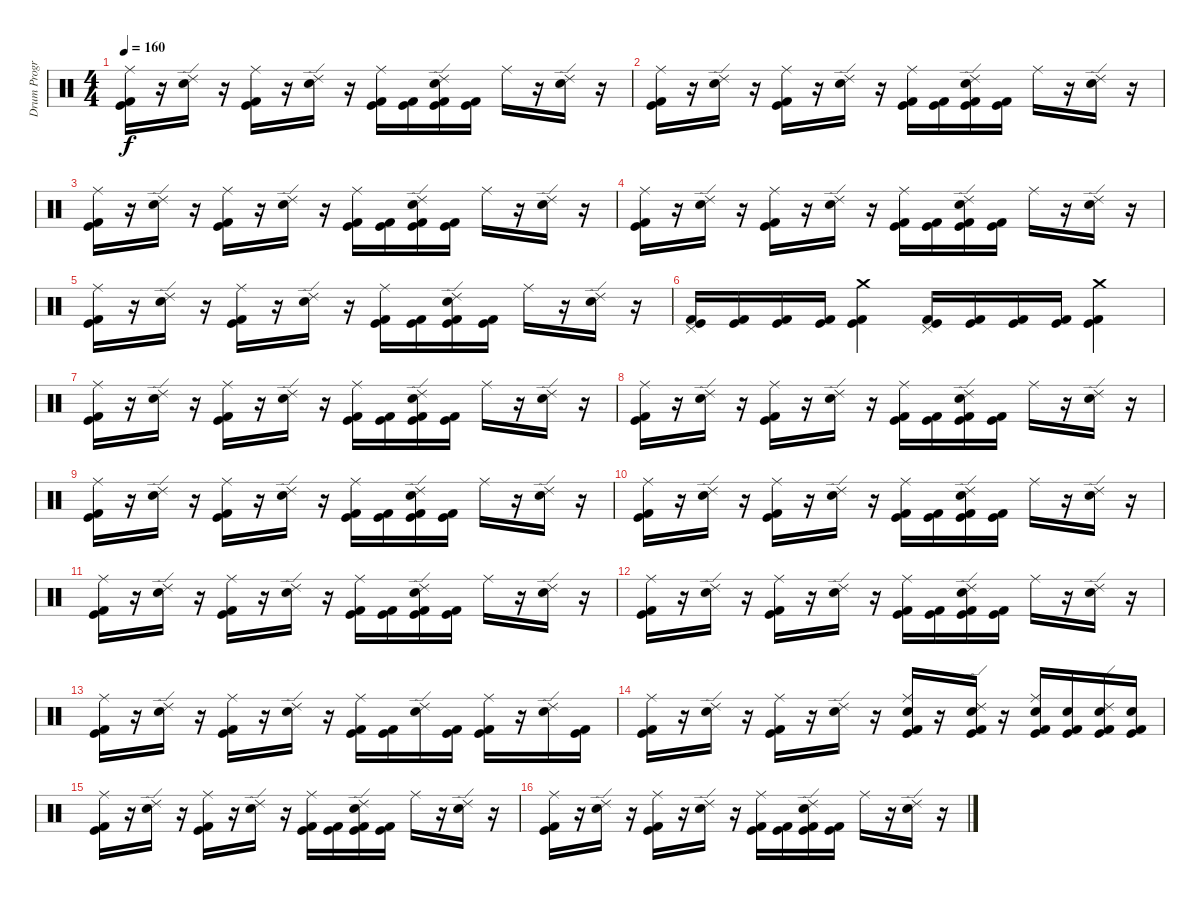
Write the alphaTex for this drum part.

\track ("Drum Program - BG" "Drum Progr") {instrument percussion}
\staff {score}
\articulation defaults
\ts (4 4)
\tempo 160
\clef neutral
\ks c
("Kick (hit) 2" "Kick (hit)" "Ride (middle)").16{dy f} r.16 ("Electric Snare (hit)" "Ride (edge) 2").16 r.16 ("Kick (hit)" "Kick (hit) 2" "Ride (middle)").16 r.16 ("Electric Snare (hit)" "Ride (edge) 2").16 r.16 ("Kick (hit)" "Kick (hit) 2" "Ride (middle)").16 ("Kick (hit)" "Kick (hit) 2").16 ("Kick (hit)" "Kick (hit) 2" "Electric Snare (hit)" "Ride (edge) 2").16 ("Kick (hit)" "Kick (hit) 2").16 "Ride (middle)".16 r.16 ("Electric Snare (hit)" "Ride (edge) 2").16 r.16 |
("Kick (hit) 2" "Kick (hit)" "Ride (middle)").16 r.16 ("Electric Snare (hit)" "Ride (edge) 2").16 r.16 ("Kick (hit)" "Kick (hit) 2" "Ride (middle)").16 r.16 ("Electric Snare (hit)" "Ride (edge) 2").16 r.16 ("Kick (hit)" "Kick (hit) 2" "Ride (middle)").16 ("Kick (hit)" "Kick (hit) 2").16 ("Kick (hit)" "Kick (hit) 2" "Electric Snare (hit)" "Ride (edge) 2").16 ("Kick (hit)" "Kick (hit) 2").16 "Ride (middle)".16 r.16 ("Electric Snare (hit)" "Ride (edge) 2").16 r.16 |
("Kick (hit) 2" "Kick (hit)" "Ride (middle)").16 r.16 ("Electric Snare (hit)" "Ride (edge) 2").16 r.16 ("Kick (hit)" "Kick (hit) 2" "Ride (middle)").16 r.16 ("Electric Snare (hit)" "Ride (edge) 2").16 r.16 ("Kick (hit)" "Kick (hit) 2" "Ride (middle)").16 ("Kick (hit)" "Kick (hit) 2").16 ("Kick (hit)" "Kick (hit) 2" "Electric Snare (hit)" "Ride (edge) 2").16 ("Kick (hit)" "Kick (hit) 2").16 "Ride (middle)".16 r.16 ("Electric Snare (hit)" "Ride (edge) 2").16 r.16 |
("Kick (hit) 2" "Kick (hit)" "Ride (middle)").16 r.16 ("Electric Snare (hit)" "Ride (edge) 2").16 r.16 ("Kick (hit)" "Kick (hit) 2" "Ride (middle)").16 r.16 ("Electric Snare (hit)" "Ride (edge) 2").16 r.16 ("Kick (hit)" "Kick (hit) 2" "Ride (middle)").16 ("Kick (hit)" "Kick (hit) 2").16 ("Kick (hit)" "Kick (hit) 2" "Electric Snare (hit)" "Ride (edge) 2").16 ("Kick (hit)" "Kick (hit) 2").16 "Ride (middle)".16 r.16 ("Electric Snare (hit)" "Ride (edge) 2").16 r.16 |
("Kick (hit) 2" "Kick (hit)" "Ride (middle)").16 r.16 ("Electric Snare (hit)" "Ride (edge) 2").16 r.16 ("Kick (hit)" "Kick (hit) 2" "Ride (middle)").16 r.16 ("Electric Snare (hit)" "Ride (edge) 2").16 r.16 ("Kick (hit)" "Kick (hit) 2" "Ride (middle)").16 ("Kick (hit)" "Kick (hit) 2").16 ("Kick (hit)" "Kick (hit) 2" "Electric Snare (hit)" "Ride (edge) 2").16 ("Kick (hit)" "Kick (hit) 2").16 "Ride (middle)".16 r.16 ("Electric Snare (hit)" "Ride (edge) 2").16 r.16 |
("Kick (hit)" "Kick (hit) 2" "Pedal Hi-Hat (hit)").16 ("Kick (hit)" "Kick (hit) 2").16 ("Kick (hit)" "Kick (hit) 2").16 ("Kick (hit)" "Kick (hit) 2").16 ("Kick (hit)" "Kick (hit) 2" "Crash medium (hit)").4 ("Kick (hit)" "Kick (hit) 2" "Pedal Hi-Hat (hit)").16 ("Kick (hit)" "Kick (hit) 2").16 ("Kick (hit)" "Kick (hit) 2").16 ("Kick (hit)" "Kick (hit) 2").16 ("Kick (hit)" "Kick (hit) 2" "Crash medium (hit)").4 |
("Kick (hit) 2" "Kick (hit)" "Ride (middle)").16 r.16 ("Electric Snare (hit)" "Ride (edge) 2").16 r.16 ("Kick (hit)" "Kick (hit) 2" "Ride (middle)").16 r.16 ("Electric Snare (hit)" "Ride (edge) 2").16 r.16 ("Kick (hit)" "Kick (hit) 2" "Ride (middle)").16 ("Kick (hit)" "Kick (hit) 2").16 ("Kick (hit)" "Kick (hit) 2" "Electric Snare (hit)" "Ride (edge) 2").16 ("Kick (hit)" "Kick (hit) 2").16 "Ride (middle)".16 r.16 ("Electric Snare (hit)" "Ride (edge) 2").16 r.16 |
("Kick (hit) 2" "Kick (hit)" "Ride (middle)").16 r.16 ("Electric Snare (hit)" "Ride (edge) 2").16 r.16 ("Kick (hit)" "Kick (hit) 2" "Ride (middle)").16 r.16 ("Electric Snare (hit)" "Ride (edge) 2").16 r.16 ("Kick (hit)" "Kick (hit) 2" "Ride (middle)").16 ("Kick (hit)" "Kick (hit) 2").16 ("Kick (hit)" "Kick (hit) 2" "Electric Snare (hit)" "Ride (edge) 2").16 ("Kick (hit)" "Kick (hit) 2").16 "Ride (middle)".16 r.16 ("Electric Snare (hit)" "Ride (edge) 2").16 r.16 |
("Kick (hit) 2" "Kick (hit)" "Ride (middle)").16 r.16 ("Electric Snare (hit)" "Ride (edge) 2").16 r.16 ("Kick (hit)" "Kick (hit) 2" "Ride (middle)").16 r.16 ("Electric Snare (hit)" "Ride (edge) 2").16 r.16 ("Kick (hit)" "Kick (hit) 2" "Ride (middle)").16 ("Kick (hit)" "Kick (hit) 2").16 ("Kick (hit)" "Kick (hit) 2" "Electric Snare (hit)" "Ride (edge) 2").16 ("Kick (hit)" "Kick (hit) 2").16 "Ride (middle)".16 r.16 ("Electric Snare (hit)" "Ride (edge) 2").16 r.16 |
("Kick (hit) 2" "Kick (hit)" "Ride (middle)").16 r.16 ("Electric Snare (hit)" "Ride (edge) 2").16 r.16 ("Kick (hit)" "Kick (hit) 2" "Ride (middle)").16 r.16 ("Electric Snare (hit)" "Ride (edge) 2").16 r.16 ("Kick (hit)" "Kick (hit) 2" "Ride (middle)").16 ("Kick (hit)" "Kick (hit) 2").16 ("Kick (hit)" "Kick (hit) 2" "Electric Snare (hit)" "Ride (edge) 2").16 ("Kick (hit)" "Kick (hit) 2").16 "Ride (middle)".16 r.16 ("Electric Snare (hit)" "Ride (edge) 2").16 r.16 |
("Kick (hit) 2" "Kick (hit)" "Ride (middle)").16 r.16 ("Electric Snare (hit)" "Ride (edge) 2").16 r.16 ("Kick (hit)" "Kick (hit) 2" "Ride (middle)").16 r.16 ("Electric Snare (hit)" "Ride (edge) 2").16 r.16 ("Kick (hit)" "Kick (hit) 2" "Ride (middle)").16 ("Kick (hit)" "Kick (hit) 2").16 ("Kick (hit)" "Kick (hit) 2" "Electric Snare (hit)" "Ride (edge) 2").16 ("Kick (hit)" "Kick (hit) 2").16 "Ride (middle)".16 r.16 ("Electric Snare (hit)" "Ride (edge) 2").16 r.16 |
("Kick (hit) 2" "Kick (hit)" "Ride (middle)").16 r.16 ("Electric Snare (hit)" "Ride (edge) 2").16 r.16 ("Kick (hit)" "Kick (hit) 2" "Ride (middle)").16 r.16 ("Electric Snare (hit)" "Ride (edge) 2").16 r.16 ("Kick (hit)" "Kick (hit) 2" "Ride (middle)").16 ("Kick (hit)" "Kick (hit) 2").16 ("Kick (hit)" "Kick (hit) 2" "Electric Snare (hit)" "Ride (edge) 2").16 ("Kick (hit)" "Kick (hit) 2").16 "Ride (middle)".16 r.16 ("Electric Snare (hit)" "Ride (edge) 2").16 r.16 |
("Kick (hit) 2" "Kick (hit)" "Ride (middle)").16 r.16 ("Electric Snare (hit)" "Ride (edge) 2").16 r.16 ("Kick (hit)" "Kick (hit) 2" "Ride (middle)").16 r.16 ("Electric Snare (hit)" "Ride (edge) 2").16 r.16 ("Kick (hit)" "Kick (hit) 2" "Ride (middle)").16 ("Kick (hit)" "Kick (hit) 2").16 ("Electric Snare (hit)" "Ride (edge) 2").16 ("Kick (hit)" "Kick (hit) 2").16 ("Kick (hit)" "Kick (hit) 2" "Ride (middle)").16 r.16 ("Electric Snare (hit)" "Ride (edge) 2").16 ("Kick (hit)" "Kick (hit) 2").16 |
("Kick (hit)" "Kick (hit) 2" "Ride (middle)").16 r.16 ("Electric Snare (hit)" "Ride (edge) 2").16 r.16 ("Kick (hit)" "Kick (hit) 2" "Ride (middle)").16 r.16 ("Electric Snare (hit)" "Ride (edge) 2").16 r.16 ("Kick (hit)" "Kick (hit) 2" "Electric Snare (hit)" "Ride (middle)").16 r.16 ("Kick (hit)" "Kick (hit) 2" "Electric Snare (hit)" "Ride (edge) 2").16 r.16 ("Kick (hit)" "Kick (hit) 2" "Electric Snare (hit)" "Ride (middle)").16 ("Kick (hit)" "Kick (hit) 2" "Electric Snare (hit)").16 ("Kick (hit)" "Kick (hit) 2" "Electric Snare (hit)" "Ride (edge) 2").16 ("Kick (hit)" "Kick (hit) 2" "Electric Snare (hit)").16 |
("Kick (hit) 2" "Kick (hit)" "Ride (middle)").16 r.16 ("Electric Snare (hit)" "Ride (edge) 2").16 r.16 ("Kick (hit)" "Kick (hit) 2" "Ride (middle)").16 r.16 ("Electric Snare (hit)" "Ride (edge) 2").16 r.16 ("Kick (hit)" "Kick (hit) 2" "Ride (middle)").16 ("Kick (hit)" "Kick (hit) 2").16 ("Kick (hit)" "Kick (hit) 2" "Electric Snare (hit)" "Ride (edge) 2").16 ("Kick (hit)" "Kick (hit) 2").16 "Ride (middle)".16 r.16 ("Electric Snare (hit)" "Ride (edge) 2").16 r.16 |
("Kick (hit) 2" "Kick (hit)" "Ride (middle)").16 r.16 ("Electric Snare (hit)" "Ride (edge) 2").16 r.16 ("Kick (hit)" "Kick (hit) 2" "Ride (middle)").16 r.16 ("Electric Snare (hit)" "Ride (edge) 2").16 r.16 ("Kick (hit)" "Kick (hit) 2" "Ride (middle)").16 ("Kick (hit)" "Kick (hit) 2").16 ("Kick (hit)" "Kick (hit) 2" "Electric Snare (hit)" "Ride (edge) 2").16 ("Kick (hit)" "Kick (hit) 2").16 "Ride (middle)".16 r.16 ("Electric Snare (hit)" "Ride (edge) 2").16 r.16
